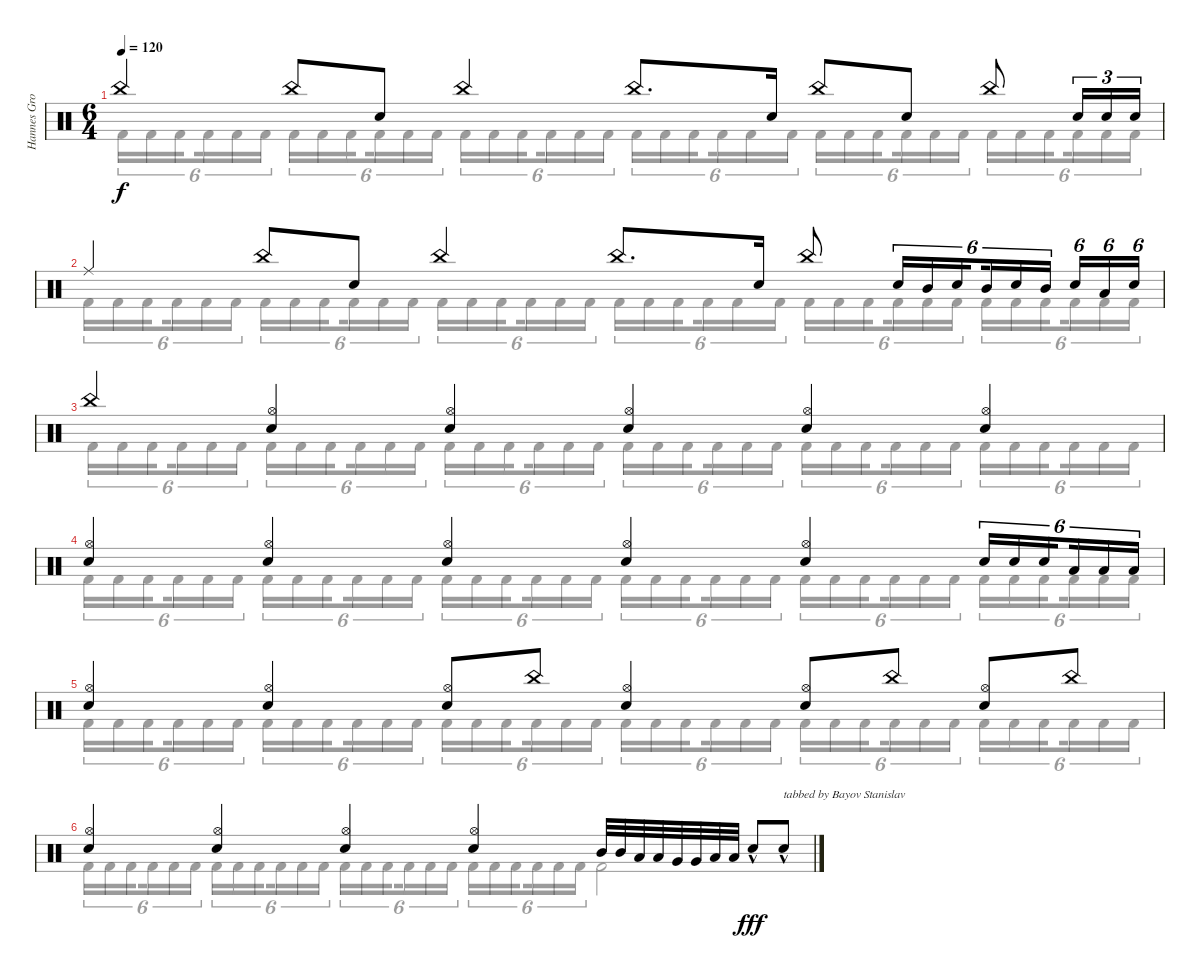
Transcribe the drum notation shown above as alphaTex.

\track ("Hannes Grossmann - drums" "Hannes Gro") {instrument percussion}
\staff {score}
\articulation defaults
\voice
\ts (6 4)
\tempo 120
\clef neutral
\ks c "China (hit)".4{dy f} "China (hit)".8 "Electric Snare (hit)".8 "China (hit)".4 "China (hit)".8{d} "Electric Snare (hit)".16 "China (hit)".8 "Electric Snare (hit)".8 "China (hit)".8 "Electric Snare (hit)".16{tu (3 2)} "Electric Snare (hit)".16{tu (3 2)} "Electric Snare (hit)".16{tu (3 2)}
|
"Ride (middle)".4 "China (hit)".8 "Electric Snare (hit)".8 "China (hit)".4 "China (hit)".8{d} "Electric Snare (hit)".16 "China (hit)".8 "Electric Snare (hit)".16{tu (6 4)} "Mid Tom (hit)".16{tu (6 4)} "Electric Snare (hit)".16{tu (6 4) beam splitsecondary} "Mid Tom (hit)".16{tu (6 4)} "Electric Snare (hit)".16{tu (6 4)} "Mid Tom (hit)".16{tu (6 4) beam splitsecondary} "Electric Snare (hit)".16{tu (6 4)} "Low Tom (hit)".16{tu (6 4)} "Electric Snare (hit)".16{tu (6 4)} |
"China (hit)".4 ("Hi-Hat (open)" "Electric Snare (hit)").4 ("Hi-Hat (open)" "Electric Snare (hit)").4 ("Hi-Hat (open)" "Electric Snare (hit)").4 ("Hi-Hat (open)" "Electric Snare (hit)").4 ("Hi-Hat (open)" "Electric Snare (hit)").4 |
("Hi-Hat (open)" "Electric Snare (hit)").4 ("Hi-Hat (open)" "Electric Snare (hit)").4 ("Hi-Hat (open)" "Electric Snare (hit)").4 ("Hi-Hat (open)" "Electric Snare (hit)").4 ("Hi-Hat (open)" "Electric Snare (hit)").4 "Electric Snare (hit)".16{tu (6 4)} "Electric Snare (hit)".16{tu (6 4)} "Electric Snare (hit)".16{tu (6 4) beam splitsecondary} "Low Tom (hit)".16{tu (6 4)} "Low Tom (hit)".16{tu (6 4)} "Low Tom (hit)".16{tu (6 4)} |
("Hi-Hat (open)" "Electric Snare (hit)").4 ("Hi-Hat (open)" "Electric Snare (hit)").4 ("Hi-Hat (open)" "Electric Snare (hit)").8 "China (hit)".8 ("Hi-Hat (open)" "Electric Snare (hit)").4 ("Hi-Hat (open)" "Electric Snare (hit)").8 "China (hit)".8 ("Hi-Hat (open)" "Electric Snare (hit)").8 "China (hit)".8 |
("Hi-Hat (open)" "Electric Snare (hit)").4 ("Hi-Hat (open)" "Electric Snare (hit)").4 ("Hi-Hat (open)" "Electric Snare (hit)").4 ("Hi-Hat (open)" "Electric Snare (hit)").4 "Mid Tom (hit)".32 "Mid Tom (hit)".32 "Low Tom (hit)".32 "Low Tom (hit)".32 "Very Low Tom (hit)".32 "Very Low Tom (hit)".32 "Low Tom (hit)".32 "Low Tom (hit)".32 "Electric Snare (hit)"{hac}.8{dy fff} "Electric Snare (hit)"{hac}.8{txt "tabbed by Bayov Stanislav"}
\voice
\clef neutral
\ottava regular
\simile none
\ks c "Kick (hit) 2".16{tu (6 4) dy f} "Kick (hit) 2".16{tu (6 4)} "Kick (hit) 2".16{tu (6 4) beam splitsecondary} "Kick (hit) 2".16{tu (6 4)} "Kick (hit) 2".16{tu (6 4)} "Kick (hit) 2".16{tu (6 4) beam splitsecondary} "Kick (hit) 2".16{tu (6 4)} "Kick (hit) 2".16{tu (6 4)} "Kick (hit) 2".16{tu (6 4) beam splitsecondary} "Kick (hit) 2".16{tu (6 4)} "Kick (hit) 2".16{tu (6 4)} "Kick (hit) 2".16{tu (6 4) beam splitsecondary} "Kick (hit) 2".16{tu (6 4)} "Kick (hit) 2".16{tu (6 4)} "Kick (hit) 2".16{tu (6 4) beam splitsecondary} "Kick (hit) 2".16{tu (6 4)} "Kick (hit) 2".16{tu (6 4)} "Kick (hit) 2".16{tu (6 4)} "Kick (hit) 2".16{tu (6 4)} "Kick (hit) 2".16{tu (6 4)} "Kick (hit) 2".16{tu (6 4) beam splitsecondary} "Kick (hit) 2".16{tu (6 4)} "Kick (hit) 2".16{tu (6 4)} "Kick (hit) 2".16{tu (6 4) beam splitsecondary} "Kick (hit) 2".16{tu (6 4)} "Kick (hit) 2".16{tu (6 4)} "Kick (hit) 2".16{tu (6 4) beam splitsecondary} "Kick (hit) 2".16{tu (6 4)} "Kick (hit) 2".16{tu (6 4)} "Kick (hit) 2".16{tu (6 4) beam splitsecondary} "Kick (hit) 2".16{tu (6 4)} "Kick (hit) 2".16{tu (6 4)} "Kick (hit) 2".16{tu (6 4) beam splitsecondary} "Kick (hit) 2".16{tu (6 4)} "Kick (hit) 2".16{tu (6 4)} "Kick (hit) 2".16{tu (6 4)}
|
"Kick (hit) 2".16{tu (6 4)} "Kick (hit) 2".16{tu (6 4)} "Kick (hit) 2".16{tu (6 4) beam splitsecondary} "Kick (hit) 2".16{tu (6 4)} "Kick (hit) 2".16{tu (6 4)} "Kick (hit) 2".16{tu (6 4) beam splitsecondary} "Kick (hit) 2".16{tu (6 4)} "Kick (hit) 2".16{tu (6 4)} "Kick (hit) 2".16{tu (6 4) beam splitsecondary} "Kick (hit) 2".16{tu (6 4)} "Kick (hit) 2".16{tu (6 4)} "Kick (hit) 2".16{tu (6 4) beam splitsecondary} "Kick (hit) 2".16{tu (6 4)} "Kick (hit) 2".16{tu (6 4)} "Kick (hit) 2".16{tu (6 4) beam splitsecondary} "Kick (hit) 2".16{tu (6 4)} "Kick (hit) 2".16{tu (6 4)} "Kick (hit) 2".16{tu (6 4)} "Kick (hit) 2".16{tu (6 4)} "Kick (hit) 2".16{tu (6 4)} "Kick (hit) 2".16{tu (6 4) beam splitsecondary} "Kick (hit) 2".16{tu (6 4)} "Kick (hit) 2".16{tu (6 4)} "Kick (hit) 2".16{tu (6 4) beam splitsecondary} "Kick (hit) 2".16{tu (6 4)} "Kick (hit) 2".16{tu (6 4)} "Kick (hit) 2".16{tu (6 4) beam splitsecondary} "Kick (hit) 2".16{tu (6 4)} "Kick (hit) 2".16{tu (6 4)} "Kick (hit) 2".16{tu (6 4) beam splitsecondary} "Kick (hit) 2".16{tu (6 4)} "Kick (hit) 2".16{tu (6 4)} "Kick (hit) 2".16{tu (6 4) beam splitsecondary} "Kick (hit) 2".16{tu (6 4)} "Kick (hit) 2".16{tu (6 4)} "Kick (hit) 2".16{tu (6 4)} |
"Kick (hit) 2".16{tu (6 4)} "Kick (hit) 2".16{tu (6 4)} "Kick (hit) 2".16{tu (6 4) beam splitsecondary} "Kick (hit) 2".16{tu (6 4)} "Kick (hit) 2".16{tu (6 4)} "Kick (hit) 2".16{tu (6 4) beam splitsecondary} "Kick (hit) 2".16{tu (6 4)} "Kick (hit) 2".16{tu (6 4)} "Kick (hit) 2".16{tu (6 4) beam splitsecondary} "Kick (hit) 2".16{tu (6 4)} "Kick (hit) 2".16{tu (6 4)} "Kick (hit) 2".16{tu (6 4) beam splitsecondary} "Kick (hit) 2".16{tu (6 4)} "Kick (hit) 2".16{tu (6 4)} "Kick (hit) 2".16{tu (6 4) beam splitsecondary} "Kick (hit) 2".16{tu (6 4)} "Kick (hit) 2".16{tu (6 4)} "Kick (hit) 2".16{tu (6 4)} "Kick (hit) 2".16{tu (6 4)} "Kick (hit) 2".16{tu (6 4)} "Kick (hit) 2".16{tu (6 4) beam splitsecondary} "Kick (hit) 2".16{tu (6 4)} "Kick (hit) 2".16{tu (6 4)} "Kick (hit) 2".16{tu (6 4) beam splitsecondary} "Kick (hit) 2".16{tu (6 4)} "Kick (hit) 2".16{tu (6 4)} "Kick (hit) 2".16{tu (6 4) beam splitsecondary} "Kick (hit) 2".16{tu (6 4)} "Kick (hit) 2".16{tu (6 4)} "Kick (hit) 2".16{tu (6 4) beam splitsecondary} "Kick (hit) 2".16{tu (6 4)} "Kick (hit) 2".16{tu (6 4)} "Kick (hit) 2".16{tu (6 4) beam splitsecondary} "Kick (hit) 2".16{tu (6 4)} "Kick (hit) 2".16{tu (6 4)} "Kick (hit) 2".16{tu (6 4)} |
"Kick (hit) 2".16{tu (6 4)} "Kick (hit) 2".16{tu (6 4)} "Kick (hit) 2".16{tu (6 4) beam splitsecondary} "Kick (hit) 2".16{tu (6 4)} "Kick (hit) 2".16{tu (6 4)} "Kick (hit) 2".16{tu (6 4) beam splitsecondary} "Kick (hit) 2".16{tu (6 4)} "Kick (hit) 2".16{tu (6 4)} "Kick (hit) 2".16{tu (6 4) beam splitsecondary} "Kick (hit) 2".16{tu (6 4)} "Kick (hit) 2".16{tu (6 4)} "Kick (hit) 2".16{tu (6 4) beam splitsecondary} "Kick (hit) 2".16{tu (6 4)} "Kick (hit) 2".16{tu (6 4)} "Kick (hit) 2".16{tu (6 4) beam splitsecondary} "Kick (hit) 2".16{tu (6 4)} "Kick (hit) 2".16{tu (6 4)} "Kick (hit) 2".16{tu (6 4)} "Kick (hit) 2".16{tu (6 4)} "Kick (hit) 2".16{tu (6 4)} "Kick (hit) 2".16{tu (6 4) beam splitsecondary} "Kick (hit) 2".16{tu (6 4)} "Kick (hit) 2".16{tu (6 4)} "Kick (hit) 2".16{tu (6 4) beam splitsecondary} "Kick (hit) 2".16{tu (6 4)} "Kick (hit) 2".16{tu (6 4)} "Kick (hit) 2".16{tu (6 4) beam splitsecondary} "Kick (hit) 2".16{tu (6 4)} "Kick (hit) 2".16{tu (6 4)} "Kick (hit) 2".16{tu (6 4) beam splitsecondary} "Kick (hit) 2".16{tu (6 4)} "Kick (hit) 2".16{tu (6 4)} "Kick (hit) 2".16{tu (6 4) beam splitsecondary} "Kick (hit) 2".16{tu (6 4)} "Kick (hit) 2".16{tu (6 4)} "Kick (hit) 2".16{tu (6 4)} |
"Kick (hit) 2".16{tu (6 4)} "Kick (hit) 2".16{tu (6 4)} "Kick (hit) 2".16{tu (6 4) beam splitsecondary} "Kick (hit) 2".16{tu (6 4)} "Kick (hit) 2".16{tu (6 4)} "Kick (hit) 2".16{tu (6 4) beam splitsecondary} "Kick (hit) 2".16{tu (6 4)} "Kick (hit) 2".16{tu (6 4)} "Kick (hit) 2".16{tu (6 4) beam splitsecondary} "Kick (hit) 2".16{tu (6 4)} "Kick (hit) 2".16{tu (6 4)} "Kick (hit) 2".16{tu (6 4) beam splitsecondary} "Kick (hit) 2".16{tu (6 4)} "Kick (hit) 2".16{tu (6 4)} "Kick (hit) 2".16{tu (6 4) beam splitsecondary} "Kick (hit) 2".16{tu (6 4)} "Kick (hit) 2".16{tu (6 4)} "Kick (hit) 2".16{tu (6 4)} "Kick (hit) 2".16{tu (6 4)} "Kick (hit) 2".16{tu (6 4)} "Kick (hit) 2".16{tu (6 4) beam splitsecondary} "Kick (hit) 2".16{tu (6 4)} "Kick (hit) 2".16{tu (6 4)} "Kick (hit) 2".16{tu (6 4) beam splitsecondary} "Kick (hit) 2".16{tu (6 4)} "Kick (hit) 2".16{tu (6 4)} "Kick (hit) 2".16{tu (6 4) beam splitsecondary} "Kick (hit) 2".16{tu (6 4)} "Kick (hit) 2".16{tu (6 4)} "Kick (hit) 2".16{tu (6 4) beam splitsecondary} "Kick (hit) 2".16{tu (6 4)} "Kick (hit) 2".16{tu (6 4)} "Kick (hit) 2".16{tu (6 4) beam splitsecondary} "Kick (hit) 2".16{tu (6 4)} "Kick (hit) 2".16{tu (6 4)} "Kick (hit) 2".16{tu (6 4)} |
"Kick (hit) 2".16{tu (6 4)} "Kick (hit) 2".16{tu (6 4)} "Kick (hit) 2".16{tu (6 4) beam splitsecondary} "Kick (hit) 2".16{tu (6 4)} "Kick (hit) 2".16{tu (6 4)} "Kick (hit) 2".16{tu (6 4) beam splitsecondary} "Kick (hit) 2".16{tu (6 4)} "Kick (hit) 2".16{tu (6 4)} "Kick (hit) 2".16{tu (6 4) beam splitsecondary} "Kick (hit) 2".16{tu (6 4)} "Kick (hit) 2".16{tu (6 4)} "Kick (hit) 2".16{tu (6 4) beam splitsecondary} "Kick (hit) 2".16{tu (6 4)} "Kick (hit) 2".16{tu (6 4)} "Kick (hit) 2".16{tu (6 4) beam splitsecondary} "Kick (hit) 2".16{tu (6 4)} "Kick (hit) 2".16{tu (6 4)} "Kick (hit) 2".16{tu (6 4)} "Kick (hit) 2".16{tu (6 4)} "Kick (hit) 2".16{tu (6 4)} "Kick (hit) 2".16{tu (6 4) beam splitsecondary} "Kick (hit) 2".16{tu (6 4)} "Kick (hit) 2".16{tu (6 4)} "Kick (hit) 2".16{tu (6 4)} "Kick (hit) 2".2
